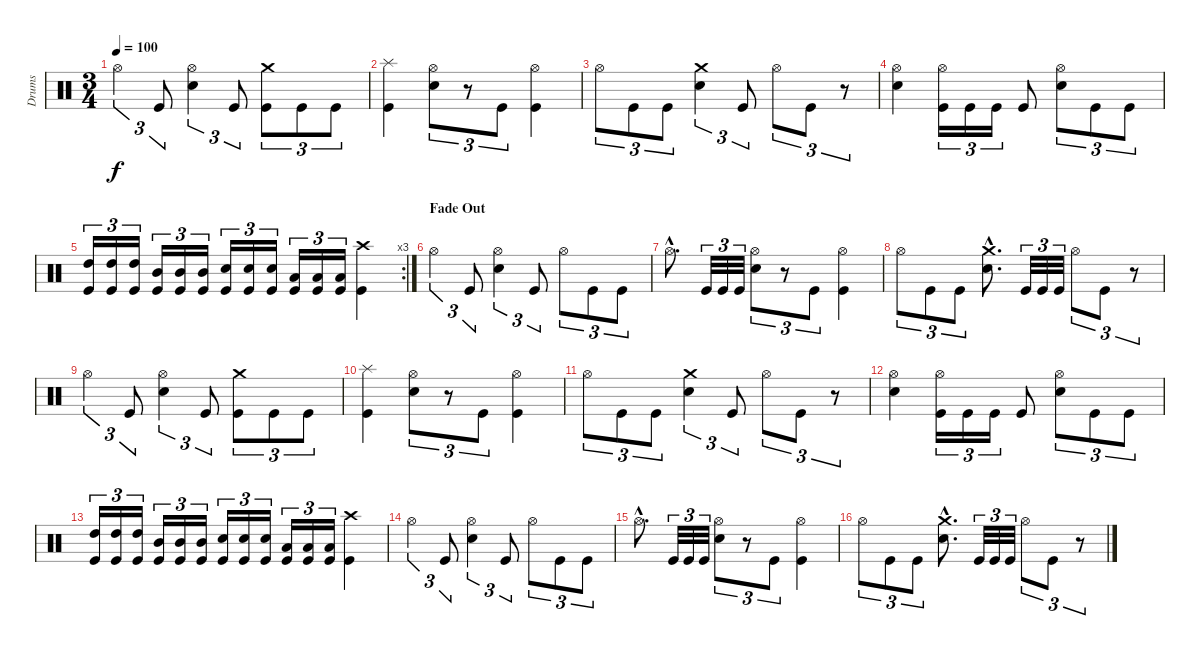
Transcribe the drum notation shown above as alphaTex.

\track ("Drums" "Drums") {instrument percussion}
\staff {score}
\articulation defaults
\ts (3 4)
\tempo 100
\clef neutral
\ks c "Hi-Hat (open)".4{tu (3 2) dy f} "Kick (hit)".8{tu (3 2)}
("Hi-Hat (open)" "Electric Snare (hit)").4{tu (3 2)} "Kick (hit)".8{tu (3 2)} ("Crash medium (hit)" "Kick (hit)").8{tu (3 2)} "Kick (hit)".8{tu (3 2)} "Kick (hit)".8{tu (3 2)} |
("Splash (hit)" "Kick (hit)").4 ("Hi-Hat (open)" "Electric Snare (hit)").8{tu (3 2)} r.8{tu (3 2)} "Kick (hit)".8{tu (3 2)} ("Hi-Hat (open)" "Kick (hit)").4 |
"Hi-Hat (open)".8{tu (3 2)} "Kick (hit)".8{tu (3 2)} "Kick (hit)".8{tu (3 2)} ("Crash medium (hit)" "Electric Snare (hit)").4{tu (3 2)} "Kick (hit)".8{tu (3 2)} "Hi-Hat (open)".8{tu (3 2)} "Kick (hit)".8{tu (3 2)} r.8{tu (3 2)} |
("Hi-Hat (open)" "Electric Snare (hit)").4 ("Hi-Hat (open)" "Kick (hit)").16{tu (3 2)} "Kick (hit)".16{tu (3 2)} "Kick (hit)".16{tu (3 2)} "Kick (hit)".8 ("Hi-Hat (open)" "Electric Snare (hit)").8{tu (3 2)} "Kick (hit)".8{tu (3 2)} "Kick (hit)".8{tu (3 2)} |
\rc 3
("High Tom (hit)" "Kick (hit)").16{tu (3 2)} ("High Tom (hit)" "Kick (hit)").16{tu (3 2)} ("High Tom (hit)" "Kick (hit)").16{tu (3 2)} ("Mid Tom (hit)" "Kick (hit)").16{tu (3 2)} ("Mid Tom (hit)" "Kick (hit)").16{tu (3 2)} ("Mid Tom (hit)" "Kick (hit)").16{tu (3 2)} ("Electric Snare (hit)" "Kick (hit)").16{tu (3 2)} ("Electric Snare (hit)" "Kick (hit)").16{tu (3 2)} ("Electric Snare (hit)" "Kick (hit)").16{tu (3 2)} ("Low Tom (hit)" "Kick (hit)").16{tu (3 2)} ("Low Tom (hit)" "Kick (hit)").16{tu (3 2)} ("Low Tom (hit)" "Kick (hit)").16{tu (3 2)} ("Crash high (hit)" "Kick (hit)").4 |
\section ("" "Fade Out")
"Hi-Hat (open)".4{tu (3 2)} "Kick (hit)".8{tu (3 2)} ("Hi-Hat (open)" "Electric Snare (hit)").4{tu (3 2)} "Kick (hit)".8{tu (3 2)} "Hi-Hat (open)".8{tu (3 2)} "Kick (hit)".8{tu (3 2)} "Kick (hit)".8{tu (3 2)} |
"Hi-Hat (open)"{hac}.8{d} "Kick (hit)".32{tu (3 2)} "Kick (hit)".32{tu (3 2)} "Kick (hit)".32{tu (3 2)} ("Hi-Hat (open)" "Electric Snare (hit)").8{tu (3 2)} r.8{tu (3 2)} "Kick (hit)".8{tu (3 2)} ("Hi-Hat (open)" "Kick (hit)").4 |
"Hi-Hat (open)".8{tu (3 2)} "Kick (hit)".8{tu (3 2)} "Kick (hit)".8{tu (3 2)} ("Crash medium (hit)"{hac} "Electric Snare (hit)"{hac}).8{d} "Kick (hit)".32{tu (3 2)} "Kick (hit)".32{tu (3 2)} "Kick (hit)".32{tu (3 2)} "Hi-Hat (open)".8{tu (3 2)} "Kick (hit)".8{tu (3 2)} r.8{tu (3 2)} |
"Hi-Hat (open)".4{tu (3 2)} "Kick (hit)".8{tu (3 2)} ("Hi-Hat (open)" "Electric Snare (hit)").4{tu (3 2)} "Kick (hit)".8{tu (3 2)} ("Crash medium (hit)" "Kick (hit)").8{tu (3 2)} "Kick (hit)".8{tu (3 2)} "Kick (hit)".8{tu (3 2)} |
("Splash (hit)" "Kick (hit)").4 ("Hi-Hat (open)" "Electric Snare (hit)").8{tu (3 2)} r.8{tu (3 2)} "Kick (hit)".8{tu (3 2)} ("Hi-Hat (open)" "Kick (hit)").4 |
"Hi-Hat (open)".8{tu (3 2)} "Kick (hit)".8{tu (3 2)} "Kick (hit)".8{tu (3 2)} ("Crash medium (hit)" "Electric Snare (hit)").4{tu (3 2)} "Kick (hit)".8{tu (3 2)} "Hi-Hat (open)".8{tu (3 2)} "Kick (hit)".8{tu (3 2)} r.8{tu (3 2)} |
("Hi-Hat (open)" "Electric Snare (hit)").4 ("Hi-Hat (open)" "Kick (hit)").16{tu (3 2)} "Kick (hit)".16{tu (3 2)} "Kick (hit)".16{tu (3 2)} "Kick (hit)".8 ("Hi-Hat (open)" "Electric Snare (hit)").8{tu (3 2)} "Kick (hit)".8{tu (3 2)} "Kick (hit)".8{tu (3 2)} |
("High Tom (hit)" "Kick (hit)").16{tu (3 2)} ("High Tom (hit)" "Kick (hit)").16{tu (3 2)} ("High Tom (hit)" "Kick (hit)").16{tu (3 2)} ("Mid Tom (hit)" "Kick (hit)").16{tu (3 2)} ("Mid Tom (hit)" "Kick (hit)").16{tu (3 2)} ("Mid Tom (hit)" "Kick (hit)").16{tu (3 2)} ("Electric Snare (hit)" "Kick (hit)").16{tu (3 2)} ("Electric Snare (hit)" "Kick (hit)").16{tu (3 2)} ("Electric Snare (hit)" "Kick (hit)").16{tu (3 2)} ("Low Tom (hit)" "Kick (hit)").16{tu (3 2)} ("Low Tom (hit)" "Kick (hit)").16{tu (3 2)} ("Low Tom (hit)" "Kick (hit)").16{tu (3 2)} ("Crash high (hit)" "Kick (hit)").4 |
"Hi-Hat (open)".4{tu (3 2)} "Kick (hit)".8{tu (3 2)} ("Hi-Hat (open)" "Electric Snare (hit)").4{tu (3 2)} "Kick (hit)".8{tu (3 2)} "Hi-Hat (open)".8{tu (3 2)} "Kick (hit)".8{tu (3 2)} "Kick (hit)".8{tu (3 2)} |
"Hi-Hat (open)"{hac}.8{d} "Kick (hit)".32{tu (3 2)} "Kick (hit)".32{tu (3 2)} "Kick (hit)".32{tu (3 2)} ("Hi-Hat (open)" "Electric Snare (hit)").8{tu (3 2)} r.8{tu (3 2)} "Kick (hit)".8{tu (3 2)} ("Hi-Hat (open)" "Kick (hit)").4 |
"Hi-Hat (open)".8{tu (3 2)} "Kick (hit)".8{tu (3 2)} "Kick (hit)".8{tu (3 2)} ("Crash medium (hit)"{hac} "Electric Snare (hit)"{hac}).8{d} "Kick (hit)".32{tu (3 2)} "Kick (hit)".32{tu (3 2)} "Kick (hit)".32{tu (3 2)} "Hi-Hat (open)".8{tu (3 2)} "Kick (hit)".8{tu (3 2)} r.8{tu (3 2)}
